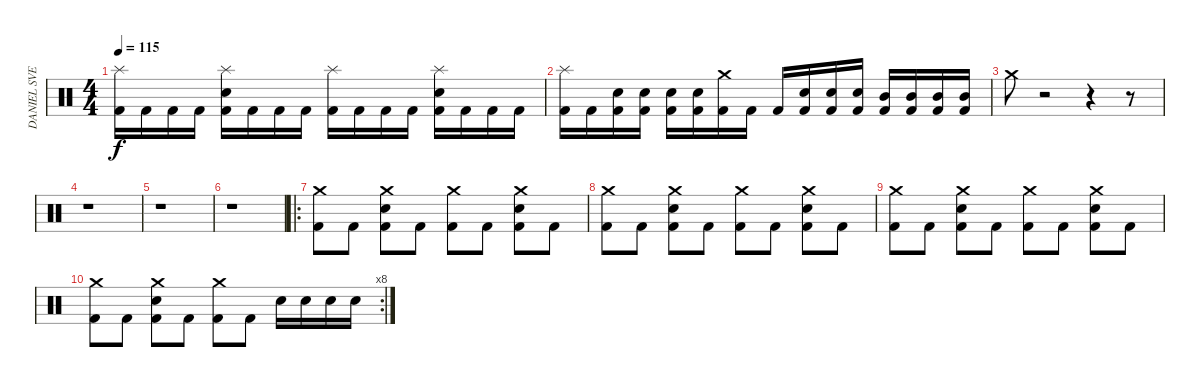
\track ("DANIEL SVENSSON" "DANIEL SVE") {instrument percussion}
\staff {score}
\articulation defaults
\ts (4 4)
\tempo 115
\clef neutral
\ks c
("Splash (hit)" "Kick (hit) 2").16{dy f} "Kick (hit) 2".16 "Kick (hit) 2".16 "Kick (hit) 2".16 ("Splash (hit)" "Snare (hit) 2" "Kick (hit) 2").16 "Kick (hit) 2".16 "Kick (hit) 2".16 "Kick (hit) 2".16 ("Splash (hit)" "Kick (hit) 2").16 "Kick (hit) 2".16 "Kick (hit) 2".16 "Kick (hit) 2".16 ("Splash (hit)" "Snare (hit) 2" "Kick (hit) 2").16 "Kick (hit) 2".16 "Kick (hit) 2".16 "Kick (hit) 2".16 |
("Splash (hit)" "Kick (hit) 2").16 "Kick (hit) 2".16 ("Snare (hit) 2" "Kick (hit) 2").16 ("Snare (hit) 2" "Kick (hit) 2").16 ("Snare (hit) 2" "Kick (hit) 2").16 ("Snare (hit) 2" "Kick (hit) 2").16 ("Crash medium (hit)" "Kick (hit) 2").16 "Kick (hit) 2".16 "Kick (hit) 2".16 ("Snare (hit) 2" "Kick (hit) 2").16 ("Snare (hit) 2" "Kick (hit) 2").16 ("Snare (hit) 2" "Kick (hit) 2").16 ("Mid Tom (hit)" "Kick (hit) 2").16 ("Mid Tom (hit)" "Kick (hit) 2").16 ("Mid Tom (hit)" "Kick (hit) 2").16 ("Mid Tom (hit)" "Kick (hit) 2").16 |
"Crash medium (hit)".8 r.2 r.4 r.8 |
r.1 |
r.1 |
r.1 |
\ro
("Crash medium (hit)" "Kick (hit) 2").8 "Kick (hit) 2".8 ("Crash medium (hit)" "Snare (hit) 2" "Kick (hit) 2").8 "Kick (hit) 2".8 ("Crash medium (hit)" "Kick (hit) 2").8 "Kick (hit) 2".8 ("Crash medium (hit)" "Snare (hit) 2" "Kick (hit) 2").8 "Kick (hit) 2".8 |
("Crash medium (hit)" "Kick (hit) 2").8 "Kick (hit) 2".8 ("Crash medium (hit)" "Snare (hit) 2" "Kick (hit) 2").8 "Kick (hit) 2".8 ("Crash medium (hit)" "Kick (hit) 2").8 "Kick (hit) 2".8 ("Crash medium (hit)" "Snare (hit) 2" "Kick (hit) 2").8 "Kick (hit) 2".8 |
("Crash medium (hit)" "Kick (hit) 2").8 "Kick (hit) 2".8 ("Crash medium (hit)" "Snare (hit) 2" "Kick (hit) 2").8 "Kick (hit) 2".8 ("Crash medium (hit)" "Kick (hit) 2").8 "Kick (hit) 2".8 ("Crash medium (hit)" "Snare (hit) 2" "Kick (hit) 2").8 "Kick (hit) 2".8 |
\rc 8
("Crash medium (hit)" "Kick (hit) 2").8 "Kick (hit) 2".8 ("Crash medium (hit)" "Snare (hit) 2" "Kick (hit) 2").8 "Kick (hit) 2".8 ("Crash medium (hit)" "Kick (hit) 2").8 "Kick (hit) 2".8 "Snare (hit) 2".16 "Snare (hit) 2".16 "Snare (hit) 2".16 "Snare (hit) 2".16
